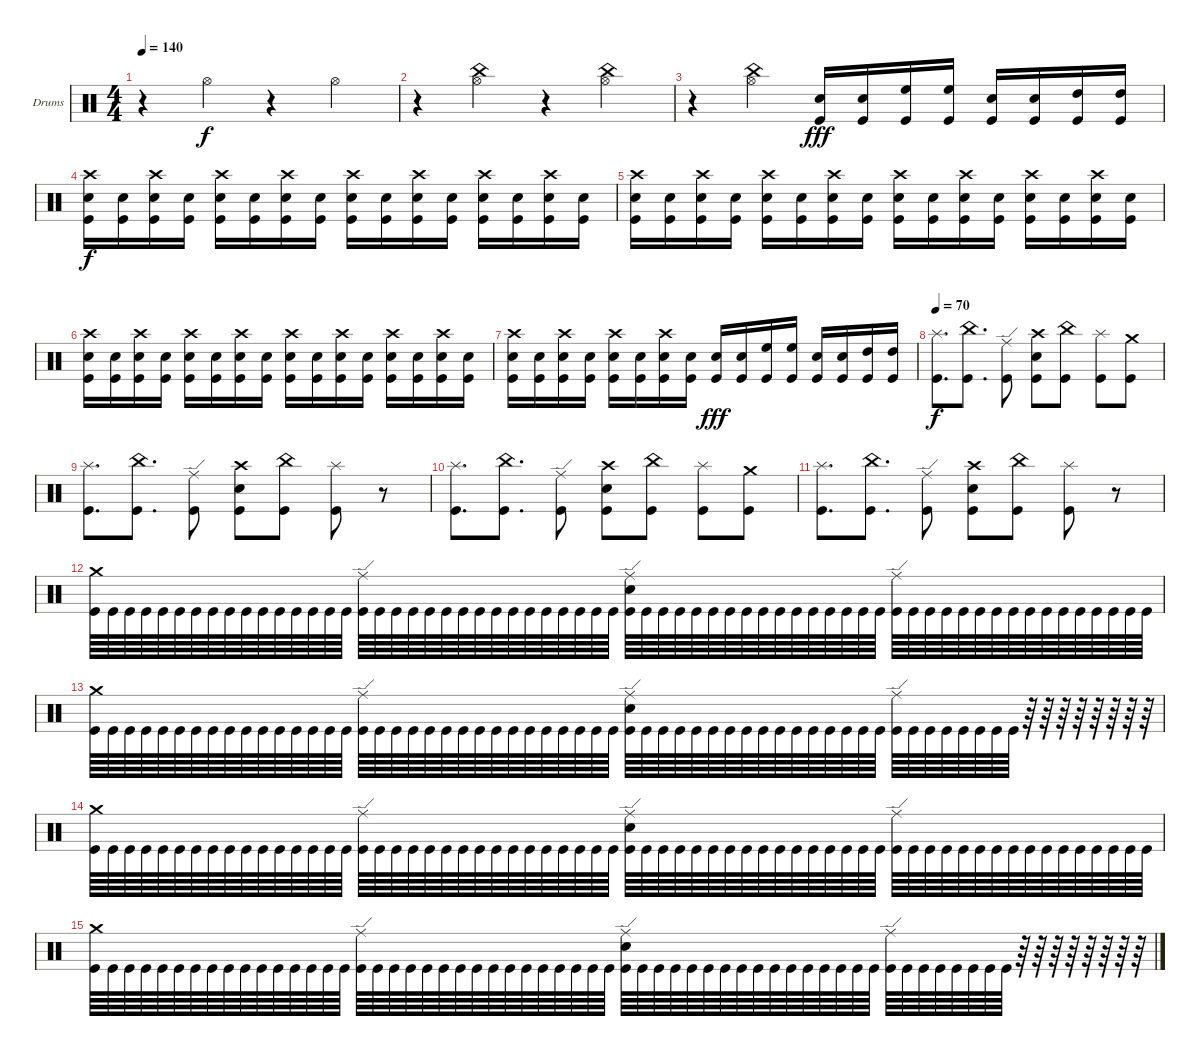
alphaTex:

\defaultSystemsLayout 4
\bracketExtendMode groupsimilarinstruments
\firstSystemTrackNameOrientation horizontal
\otherSystemsTrackNameOrientation horizontal
\track ("Drumkit" "Drums") {instrument percussion}
\staff {score}
\articulation defaults
\ts (4 4)
\tempo 140
\clef neutral
\scale
0.333333
\ks c
r.4{dy f} "Hi-Hat (open)".4 r.4 "Hi-Hat (open)".4 |
\scale
0.333333 r.4 ("Hi-Hat (open)" "China (hit)").4 r.4 ("Hi-Hat (open)" "China (hit)").4 |
\scale
0.333333 r.4 ("Hi-Hat (open)" "China (hit)").4 ("Snare (hit) 2" "Kick (hit)").16{dy fff} ("Snare (hit) 2" "Kick (hit)").16 ("High Floor Tom (hit)" "Kick (hit)").16 ("High Floor Tom (hit)" "Kick (hit)").16 ("Snare (hit) 2" "Kick (hit)").16 ("Snare (hit) 2" "Kick (hit)").16 ("High Tom (hit)" "Kick (hit)").16 ("High Tom (hit)" "Kick (hit)").16 |
\scale
0.333333 ("Kick (hit)" "Snare (hit) 2" "Crash high (hit)").16{dy f} ("Kick (hit)" "Snare (hit) 2").16 ("Kick (hit)" "Snare (hit) 2" "Crash high (hit)").16 ("Kick (hit)" "Snare (hit) 2").16 ("Kick (hit)" "Snare (hit) 2" "Crash high (hit)").16 ("Kick (hit)" "Snare (hit) 2").16 ("Kick (hit)" "Snare (hit) 2" "Crash high (hit)").16 ("Kick (hit)" "Snare (hit) 2").16 ("Kick (hit)" "Snare (hit) 2" "Crash high (hit)").16 ("Kick (hit)" "Snare (hit) 2").16 ("Kick (hit)" "Snare (hit) 2" "Crash high (hit)").16 ("Kick (hit)" "Snare (hit) 2").16 ("Kick (hit)" "Snare (hit) 2" "Crash high (hit)").16 ("Kick (hit)" "Snare (hit) 2").16 ("Kick (hit)" "Snare (hit) 2" "Crash high (hit)").16 ("Kick (hit)" "Snare (hit) 2").16 |
\scale
0.333333 ("Kick (hit)" "Snare (hit) 2" "Crash high (hit)").16 ("Kick (hit)" "Snare (hit) 2").16 ("Kick (hit)" "Snare (hit) 2" "Crash high (hit)").16 ("Kick (hit)" "Snare (hit) 2").16 ("Kick (hit)" "Snare (hit) 2" "Crash high (hit)").16 ("Kick (hit)" "Snare (hit) 2").16 ("Kick (hit)" "Snare (hit) 2" "Crash high (hit)").16 ("Kick (hit)" "Snare (hit) 2").16 ("Kick (hit)" "Snare (hit) 2" "Crash high (hit)").16 ("Kick (hit)" "Snare (hit) 2").16 ("Kick (hit)" "Snare (hit) 2" "Crash high (hit)").16 ("Kick (hit)" "Snare (hit) 2").16 ("Kick (hit)" "Snare (hit) 2" "Crash high (hit)").16 ("Kick (hit)" "Snare (hit) 2").16 ("Kick (hit)" "Snare (hit) 2" "Crash high (hit)").16 ("Kick (hit)" "Snare (hit) 2").16 |
\scale
0.333333 ("Kick (hit)" "Snare (hit) 2" "Crash high (hit)").16 ("Kick (hit)" "Snare (hit) 2").16 ("Kick (hit)" "Snare (hit) 2" "Crash high (hit)").16 ("Kick (hit)" "Snare (hit) 2").16 ("Kick (hit)" "Snare (hit) 2" "Crash high (hit)").16 ("Kick (hit)" "Snare (hit) 2").16 ("Kick (hit)" "Snare (hit) 2" "Crash high (hit)").16 ("Kick (hit)" "Snare (hit) 2").16 ("Kick (hit)" "Snare (hit) 2" "Crash high (hit)").16 ("Kick (hit)" "Snare (hit) 2").16 ("Kick (hit)" "Snare (hit) 2" "Crash high (hit)").16 ("Kick (hit)" "Snare (hit) 2").16 ("Kick (hit)" "Snare (hit) 2" "Crash high (hit)").16 ("Kick (hit)" "Snare (hit) 2").16 ("Kick (hit)" "Snare (hit) 2" "Crash high (hit)").16 ("Kick (hit)" "Snare (hit) 2").16 |
\scale
0.333333 ("Kick (hit)" "Snare (hit) 2" "Crash high (hit)").16 ("Kick (hit)" "Snare (hit) 2").16 ("Kick (hit)" "Snare (hit) 2" "Crash high (hit)").16 ("Kick (hit)" "Snare (hit) 2").16 ("Kick (hit)" "Snare (hit) 2" "Crash high (hit)").16 ("Kick (hit)" "Snare (hit) 2").16 ("Kick (hit)" "Snare (hit) 2" "Crash high (hit)").16 ("Kick (hit)" "Snare (hit) 2").16 ("Snare (hit) 2" "Kick (hit)").16{dy fff} ("Snare (hit) 2" "Kick (hit)").16 ("High Floor Tom (hit)" "Kick (hit)").16 ("High Floor Tom (hit)" "Kick (hit)").16 ("Snare (hit) 2" "Kick (hit)").16 ("Snare (hit) 2" "Kick (hit)").16 ("High Tom (hit)" "Kick (hit)").16 ("High Tom (hit)" "Kick (hit)").16 |
\tempo 70
\scale
0.333333 ("Kick (hit)" "Splash (hit)").8{d dy f} ("Kick (hit)" "China (hit)").8{d} ("Kick (hit)" "Ride (edge)").8 ("Kick (hit)" "Snare (hit) 2" "Crash high (hit)").8 ("Kick (hit)" "China (hit)").8 ("Kick (hit)" "Splash (hit)").8 ("Kick (hit)" "Crash medium (hit)").8 |
\scale
0.333333 ("Kick (hit)" "Splash (hit)").8{d} ("Kick (hit)" "China (hit)").8{d} ("Kick (hit)" "Ride (edge)").8 ("Kick (hit)" "Snare (hit) 2" "Crash high (hit)").8 ("Kick (hit)" "China (hit)").8 ("Kick (hit)" "Splash (hit)").8 r.8 |
\scale
0.333333 ("Kick (hit)" "Splash (hit)").8{d} ("Kick (hit)" "China (hit)").8{d} ("Kick (hit)" "Ride (edge)").8 ("Kick (hit)" "Snare (hit) 2" "Crash high (hit)").8 ("Kick (hit)" "China (hit)").8 ("Kick (hit)" "Splash (hit)").8 ("Kick (hit)" "Crash medium (hit)").8 |
\scale
0.333333 ("Kick (hit)" "Splash (hit)").8{d} ("Kick (hit)" "China (hit)").8{d} ("Kick (hit)" "Ride (edge)").8 ("Kick (hit)" "Snare (hit) 2" "Crash high (hit)").8 ("Kick (hit)" "China (hit)").8 ("Kick (hit)" "Splash (hit)").8 r.8 |
\scale
0.333333 ("Kick (hit)" "Crash medium (hit)").64 "Kick (hit)".64 "Kick (hit)".64 "Kick (hit)".64 "Kick (hit)".64 "Kick (hit)".64 "Kick (hit)".64 "Kick (hit)".64 "Kick (hit)".64 "Kick (hit)".64 "Kick (hit)".64 "Kick (hit)".64 "Kick (hit)".64 "Kick (hit)".64 "Kick (hit)".64 "Kick (hit)".64 ("Kick (hit)" "Ride (edge)").64 "Kick (hit)".64 "Kick (hit)".64 "Kick (hit)".64 "Kick (hit)".64 "Kick (hit)".64 "Kick (hit)".64 "Kick (hit)".64 "Kick (hit)".64 "Kick (hit)".64 "Kick (hit)".64 "Kick (hit)".64 "Kick (hit)".64 "Kick (hit)".64 "Kick (hit)".64 "Kick (hit)".64 ("Kick (hit)" "Snare (hit) 2" "Ride (edge)").64 "Kick (hit)".64 "Kick (hit)".64 "Kick (hit)".64 "Kick (hit)".64 "Kick (hit)".64 "Kick (hit)".64 "Kick (hit)".64 "Kick (hit)".64 "Kick (hit)".64 "Kick (hit)".64 "Kick (hit)".64 "Kick (hit)".64 "Kick (hit)".64 "Kick (hit)".64 "Kick (hit)".64 ("Kick (hit)" "Ride (edge)").64 "Kick (hit)".64 "Kick (hit)".64 "Kick (hit)".64 "Kick (hit)".64 "Kick (hit)".64 "Kick (hit)".64 "Kick (hit)".64 "Kick (hit)".64 "Kick (hit)".64 "Kick (hit)".64 "Kick (hit)".64 "Kick (hit)".64 "Kick (hit)".64 "Kick (hit)".64 "Kick (hit)".64 |
("Kick (hit)" "Crash medium (hit)").64 "Kick (hit)".64 "Kick (hit)".64 "Kick (hit)".64 "Kick (hit)".64 "Kick (hit)".64 "Kick (hit)".64 "Kick (hit)".64 "Kick (hit)".64 "Kick (hit)".64 "Kick (hit)".64 "Kick (hit)".64 "Kick (hit)".64 "Kick (hit)".64 "Kick (hit)".64 "Kick (hit)".64 ("Kick (hit)" "Ride (edge)").64 "Kick (hit)".64 "Kick (hit)".64 "Kick (hit)".64 "Kick (hit)".64 "Kick (hit)".64 "Kick (hit)".64 "Kick (hit)".64 "Kick (hit)".64 "Kick (hit)".64 "Kick (hit)".64 "Kick (hit)".64 "Kick (hit)".64 "Kick (hit)".64 "Kick (hit)".64 "Kick (hit)".64 ("Kick (hit)" "Snare (hit) 2" "Ride (edge)").64 "Kick (hit)".64 "Kick (hit)".64 "Kick (hit)".64 "Kick (hit)".64 "Kick (hit)".64 "Kick (hit)".64 "Kick (hit)".64 "Kick (hit)".64 "Kick (hit)".64 "Kick (hit)".64 "Kick (hit)".64 "Kick (hit)".64 "Kick (hit)".64 "Kick (hit)".64 "Kick (hit)".64 ("Kick (hit)" "Ride (edge)").64 "Kick (hit)".64 "Kick (hit)".64 "Kick (hit)".64 "Kick (hit)".64 "Kick (hit)".64 "Kick (hit)".64 "Kick (hit)".64 r.64 r.64 r.64 r.64 r.64 r.64 r.64 r.64 |
("Kick (hit)" "Crash medium (hit)").64 "Kick (hit)".64 "Kick (hit)".64 "Kick (hit)".64 "Kick (hit)".64 "Kick (hit)".64 "Kick (hit)".64 "Kick (hit)".64 "Kick (hit)".64 "Kick (hit)".64 "Kick (hit)".64 "Kick (hit)".64 "Kick (hit)".64 "Kick (hit)".64 "Kick (hit)".64 "Kick (hit)".64 ("Kick (hit)" "Ride (edge)").64 "Kick (hit)".64 "Kick (hit)".64 "Kick (hit)".64 "Kick (hit)".64 "Kick (hit)".64 "Kick (hit)".64 "Kick (hit)".64 "Kick (hit)".64 "Kick (hit)".64 "Kick (hit)".64 "Kick (hit)".64 "Kick (hit)".64 "Kick (hit)".64 "Kick (hit)".64 "Kick (hit)".64 ("Kick (hit)" "Snare (hit) 2" "Ride (edge)").64 "Kick (hit)".64 "Kick (hit)".64 "Kick (hit)".64 "Kick (hit)".64 "Kick (hit)".64 "Kick (hit)".64 "Kick (hit)".64 "Kick (hit)".64 "Kick (hit)".64 "Kick (hit)".64 "Kick (hit)".64 "Kick (hit)".64 "Kick (hit)".64 "Kick (hit)".64 "Kick (hit)".64 ("Kick (hit)" "Ride (edge)").64 "Kick (hit)".64 "Kick (hit)".64 "Kick (hit)".64 "Kick (hit)".64 "Kick (hit)".64 "Kick (hit)".64 "Kick (hit)".64 "Kick (hit)".64 "Kick (hit)".64 "Kick (hit)".64 "Kick (hit)".64 "Kick (hit)".64 "Kick (hit)".64 "Kick (hit)".64 "Kick (hit)".64 |
("Kick (hit)" "Crash medium (hit)").64 "Kick (hit)".64 "Kick (hit)".64 "Kick (hit)".64 "Kick (hit)".64 "Kick (hit)".64 "Kick (hit)".64 "Kick (hit)".64 "Kick (hit)".64 "Kick (hit)".64 "Kick (hit)".64 "Kick (hit)".64 "Kick (hit)".64 "Kick (hit)".64 "Kick (hit)".64 "Kick (hit)".64 ("Kick (hit)" "Ride (edge)").64 "Kick (hit)".64 "Kick (hit)".64 "Kick (hit)".64 "Kick (hit)".64 "Kick (hit)".64 "Kick (hit)".64 "Kick (hit)".64 "Kick (hit)".64 "Kick (hit)".64 "Kick (hit)".64 "Kick (hit)".64 "Kick (hit)".64 "Kick (hit)".64 "Kick (hit)".64 "Kick (hit)".64 ("Kick (hit)" "Snare (hit) 2" "Ride (edge)").64 "Kick (hit)".64 "Kick (hit)".64 "Kick (hit)".64 "Kick (hit)".64 "Kick (hit)".64 "Kick (hit)".64 "Kick (hit)".64 "Kick (hit)".64 "Kick (hit)".64 "Kick (hit)".64 "Kick (hit)".64 "Kick (hit)".64 "Kick (hit)".64 "Kick (hit)".64 "Kick (hit)".64 ("Kick (hit)" "Ride (edge)").64 "Kick (hit)".64 "Kick (hit)".64 "Kick (hit)".64 "Kick (hit)".64 "Kick (hit)".64 "Kick (hit)".64 "Kick (hit)".64 r.64 r.64 r.64 r.64 r.64 r.64 r.64 r.64
